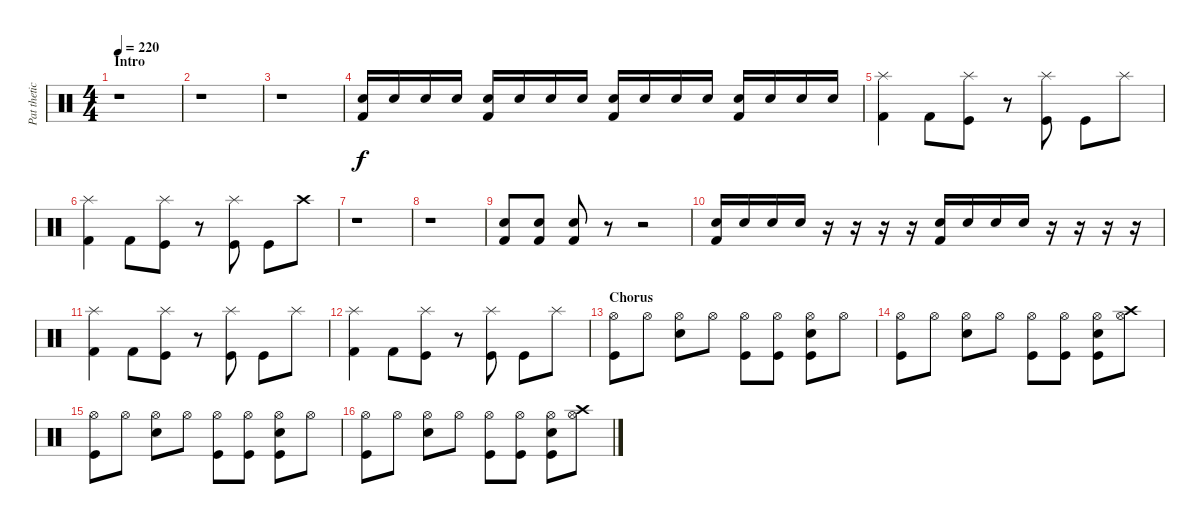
\track ("Pat thetic " "Pat thetic") {instrument percussion}
\staff {score}
\articulation defaults
\ts (4 4)
\section ("" "Intro")
\tempo 220
\clef neutral
\ks c
r.1{dy f} |
r.1 |
r.1 |
("Kick (hit) 2" "Electric Snare (hit)").16 "Electric Snare (hit)".16 "Electric Snare (hit)".16 "Electric Snare (hit)".16 ("Kick (hit) 2" "Electric Snare (hit)").16 "Electric Snare (hit)".16 "Electric Snare (hit)".16 "Electric Snare (hit)".16 ("Kick (hit) 2" "Electric Snare (hit)").16 "Electric Snare (hit)".16 "Electric Snare (hit)".16 "Electric Snare (hit)".16 ("Kick (hit) 2" "Electric Snare (hit)").16 "Electric Snare (hit)".16 "Electric Snare (hit)".16 "Electric Snare (hit)".16 |
("Kick (hit) 2" "Splash (hit)").4 "Kick (hit) 2".8 ("Kick (hit)" "Splash (hit)").8 r.8 ("Kick (hit)" "Splash (hit)").8 "Kick (hit)".8 "Splash (hit)".8 |
("Kick (hit) 2" "Splash (hit)").4 "Kick (hit) 2".8 ("Kick (hit)" "Splash (hit)").8 r.8 ("Kick (hit)" "Splash (hit)").8 "Kick (hit)".8 "Crash high (hit)".8 |
r.1 |
r.1 |
("Kick (hit) 2" "Electric Snare (hit)").8 ("Kick (hit) 2" "Electric Snare (hit)").8 ("Kick (hit) 2" "Electric Snare (hit)").8 r.8 r.2 |
("Kick (hit) 2" "Electric Snare (hit)").16 "Electric Snare (hit)".16 "Electric Snare (hit)".16 "Electric Snare (hit)".16 r.16 r.16 r.16 r.16 ("Kick (hit) 2" "Electric Snare (hit)").16 "Electric Snare (hit)".16 "Electric Snare (hit)".16 "Electric Snare (hit)".16 r.16 r.16 r.16 r.16 |
("Kick (hit) 2" "Splash (hit)").4 "Kick (hit) 2".8 ("Kick (hit)" "Splash (hit)").8 r.8 ("Kick (hit)" "Splash (hit)").8 "Kick (hit)".8 "Splash (hit)".8 |
("Kick (hit) 2" "Splash (hit)").4 "Kick (hit) 2".8 ("Kick (hit)" "Splash (hit)").8 r.8 ("Kick (hit)" "Splash (hit)").8 "Kick (hit)".8 "Splash (hit)".8 |
\section ("" "Chorus")
("Kick (hit)" "Hi-Hat (open)").8 "Hi-Hat (open)".8 ("Electric Snare (hit)" "Hi-Hat (open)").8 "Hi-Hat (open)".8 ("Kick (hit)" "Hi-Hat (open)").8 ("Kick (hit)" "Hi-Hat (open)").8 ("Kick (hit)" "Electric Snare (hit)" "Hi-Hat (open)").8 "Hi-Hat (open)".8 |
("Kick (hit)" "Hi-Hat (open)").8 "Hi-Hat (open)".8 ("Electric Snare (hit)" "Hi-Hat (open)").8 "Hi-Hat (open)".8 ("Kick (hit)" "Hi-Hat (open)").8 ("Kick (hit)" "Hi-Hat (open)").8 ("Kick (hit)" "Electric Snare (hit)" "Hi-Hat (open)").8 ("Crash high (hit)" "Hi-Hat (open)").8 |
("Kick (hit)" "Hi-Hat (open)").8 "Hi-Hat (open)".8 ("Electric Snare (hit)" "Hi-Hat (open)").8 "Hi-Hat (open)".8 ("Kick (hit)" "Hi-Hat (open)").8 ("Kick (hit)" "Hi-Hat (open)").8 ("Kick (hit)" "Electric Snare (hit)" "Hi-Hat (open)").8 "Hi-Hat (open)".8 |
("Kick (hit)" "Hi-Hat (open)").8 "Hi-Hat (open)".8 ("Electric Snare (hit)" "Hi-Hat (open)").8 "Hi-Hat (open)".8 ("Kick (hit)" "Hi-Hat (open)").8 ("Kick (hit)" "Hi-Hat (open)").8 ("Kick (hit)" "Electric Snare (hit)" "Hi-Hat (open)").8 ("Crash high (hit)" "Hi-Hat (open)").8
